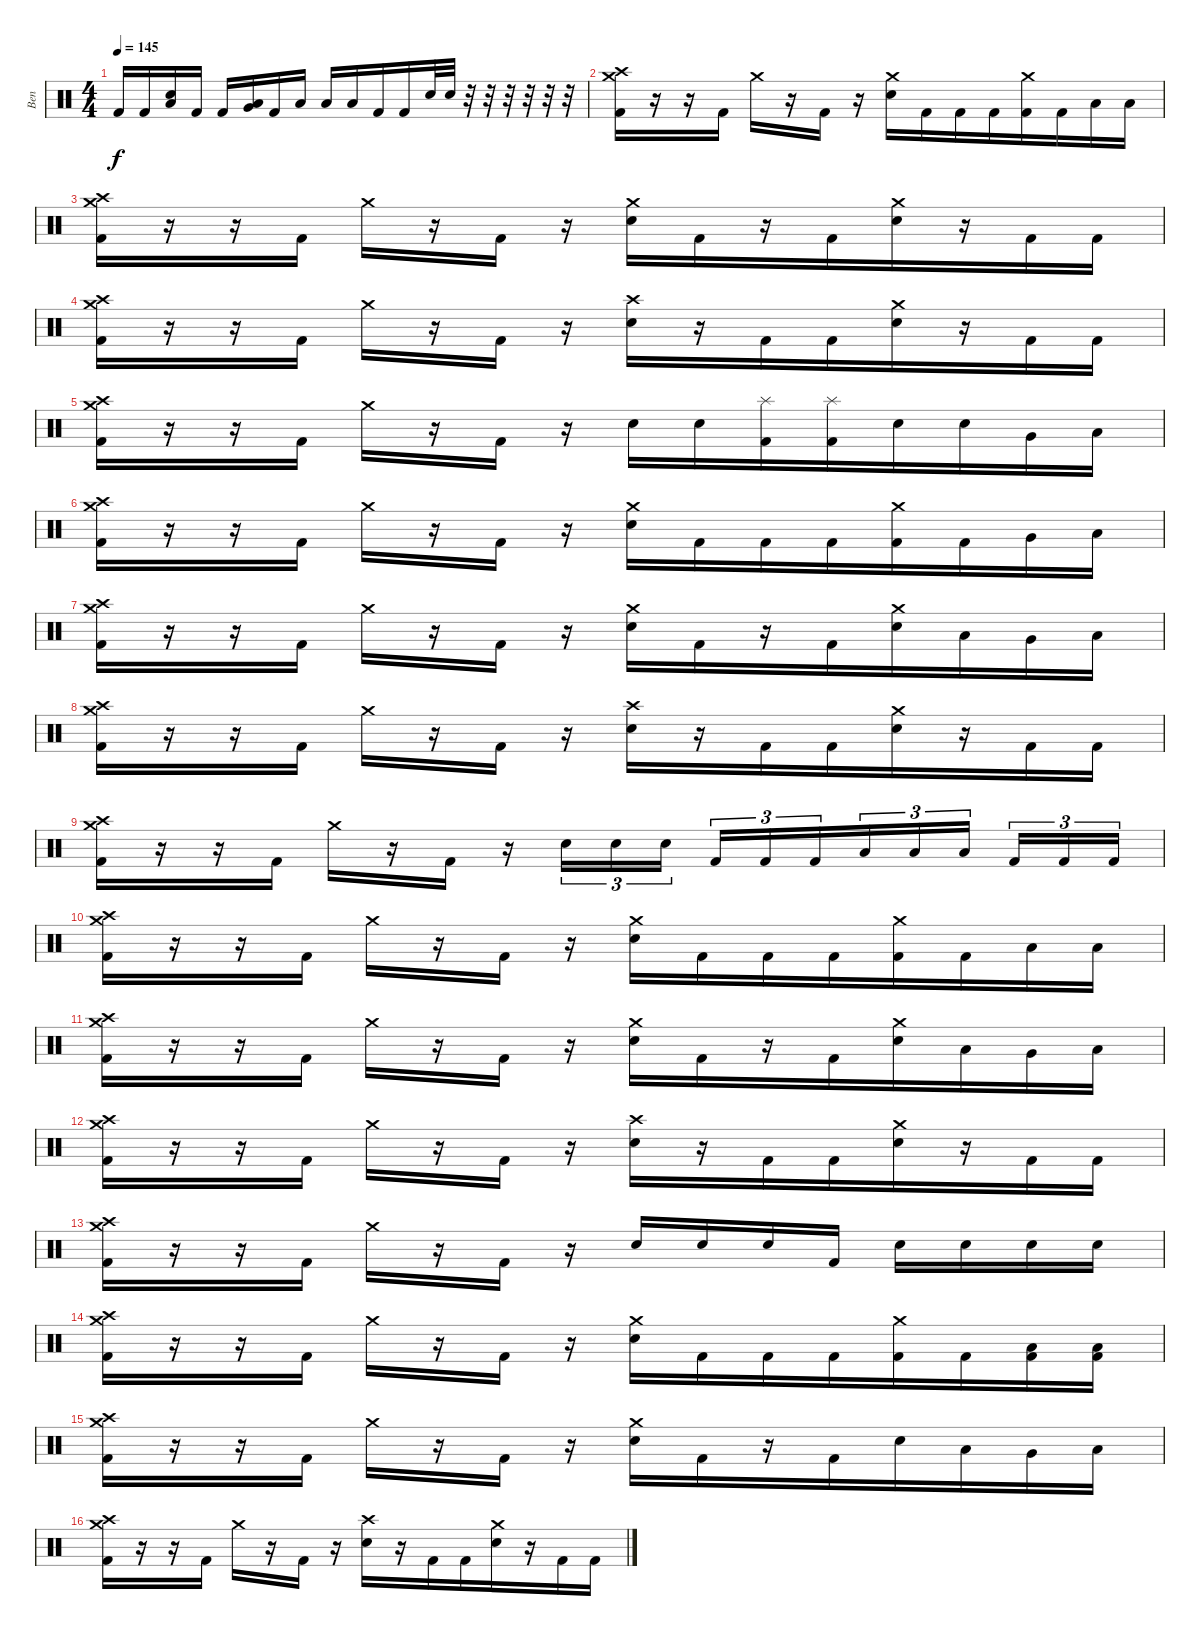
\track ("Ben" "Ben") {instrument percussion}
\staff {score}
\articulation defaults
\ts (4 4)
\tempo 145
\clef neutral
\ks c "Kick (hit) 2".16{dy f} "Kick (hit) 2".16{beam merge}
("Low Floor Tom (hit)" "Electric Snare (hit)").16 "Kick (hit) 2".16 "Kick (hit) 2".16 ("Low Tom (hit)" "Very Low Tom (hit)").16{beam merge} "Kick (hit) 2".16 "Low Floor Tom (hit)".16 "Low Floor Tom (hit)".16 "Low Floor Tom (hit)".16{beam merge} "Kick (hit) 2".16{beam merge} "Kick (hit) 2".16{beam merge} "Electric Snare (hit)".32 "Electric Snare (hit)".32{beam merge} r.32 r.32{beam merge} r.32 r.32{beam merge} r.32 r.32 |
("Kick (hit) 2" "Crash medium (hit)" "Crash high (hit)").16 r.16{beam merge} r.16 "Kick (hit) 2".16 "Crash medium (hit)".16{beam merge} r.16{beam merge} "Kick (hit) 2".16 r.16{beam merge} ("Crash medium (hit)" "Electric Snare (hit)").16 "Kick (hit) 2".16{beam merge} "Kick (hit) 2".16{beam merge} "Kick (hit) 2".16{beam merge} ("Kick (hit) 2" "Crash medium (hit)").16{beam merge} "Kick (hit) 2".16{beam merge} "Low Tom (hit)".16{beam merge} "Low Tom (hit)".16 |
("Kick (hit) 2" "Crash medium (hit)" "Crash high (hit)").16 r.16{beam merge} r.16 "Kick (hit) 2".16 "Crash medium (hit)".16{beam merge} r.16{beam merge} "Kick (hit) 2".16 r.16{beam merge} ("Crash medium (hit)" "Electric Snare (hit)").16 "Kick (hit) 2".16{beam merge} r.16{beam merge} "Kick (hit) 2".16{beam merge} ("Electric Snare (hit)" "Crash medium (hit)").16{beam merge} r.16{beam merge} "Kick (hit) 2".16{beam merge} "Kick (hit) 2".16 |
("Kick (hit) 2" "Crash medium (hit)" "Crash high (hit)").16 r.16{beam merge} r.16 "Kick (hit) 2".16 "Crash medium (hit)".16{beam merge} r.16{beam merge} "Kick (hit) 2".16 r.16{beam merge} ("Crash high (hit)" "Electric Snare (hit)").16{beam merge} r.16{beam merge} "Kick (hit) 2".16{beam merge} "Kick (hit) 2".16{beam merge} ("Electric Snare (hit)" "Crash medium (hit)").16{beam merge} r.16{beam merge} "Kick (hit) 2".16 "Kick (hit) 2".16 |
("Kick (hit) 2" "Crash medium (hit)" "Crash high (hit)").16 r.16{beam merge} r.16 "Kick (hit) 2".16 "Crash medium (hit)".16{beam merge} r.16{beam merge} "Kick (hit) 2".16 r.16{beam merge} "Electric Snare (hit)".16{beam merge} "Electric Snare (hit)".16 ("Kick (hit) 2" "Splash (hit)").16 ("Kick (hit) 2" "Splash (hit)").16{beam merge} "Electric Snare (hit)".16{beam merge} "Electric Snare (hit)".16 "Very Low Tom (hit)".16{beam merge} "Low Floor Tom (hit)".16 |
("Kick (hit) 2" "Crash medium (hit)" "Crash high (hit)").16 r.16{beam merge} r.16 "Kick (hit) 2".16 "Crash medium (hit)".16{beam merge} r.16{beam merge} "Kick (hit) 2".16 r.16{beam merge} ("Crash medium (hit)" "Electric Snare (hit)").16 "Kick (hit) 2".16{beam merge} "Kick (hit) 2".16{beam merge} "Kick (hit) 2".16{beam merge} ("Kick (hit) 2" "Crash medium (hit)").16{beam merge} "Kick (hit) 2".16{beam merge} "Very Low Tom (hit)".16{beam merge} "Low Floor Tom (hit)".16 |
("Kick (hit) 2" "Crash medium (hit)" "Crash high (hit)").16 r.16{beam merge} r.16 "Kick (hit) 2".16 "Crash medium (hit)".16{beam merge} r.16{beam merge} "Kick (hit) 2".16 r.16{beam merge} ("Crash medium (hit)" "Electric Snare (hit)").16 "Kick (hit) 2".16{beam merge} r.16{beam merge} "Kick (hit) 2".16{beam merge} ("Electric Snare (hit)" "Crash medium (hit)").16{beam merge} "Low Tom (hit)".16{beam merge} "Very Low Tom (hit)".16{beam merge} "Low Floor Tom (hit)".16 |
("Kick (hit) 2" "Crash medium (hit)" "Crash high (hit)").16 r.16{beam merge} r.16 "Kick (hit) 2".16 "Crash medium (hit)".16{beam merge} r.16{beam merge} "Kick (hit) 2".16 r.16{beam merge} ("Crash high (hit)" "Electric Snare (hit)").16{beam merge} r.16{beam merge} "Kick (hit) 2".16{beam merge} "Kick (hit) 2".16{beam merge} ("Electric Snare (hit)" "Crash medium (hit)").16{beam merge} r.16{beam merge} "Kick (hit) 2".16 "Kick (hit) 2".16 |
("Kick (hit) 2" "Crash medium (hit)" "Crash high (hit)").16 r.16{beam merge} r.16 "Kick (hit) 2".16 "Crash medium (hit)".16{beam merge} r.16{beam merge} "Kick (hit) 2".16 r.16{beam merge} "Electric Snare (hit)".16{tu (3 2) beam merge} "Electric Snare (hit)".16{tu (3 2)} "Electric Snare (hit)".16{tu (3 2) beam splitsecondary} "Kick (hit) 2".16{tu (3 2)} "Kick (hit) 2".16{tu (3 2) beam merge} "Kick (hit) 2".16{tu (3 2) beam merge} "Low Tom (hit)".16{tu (3 2)} "Low Tom (hit)".16{tu (3 2)} "Low Tom (hit)".16{tu (3 2) beam splitsecondary} "Kick (hit) 2".16{tu (3 2) beam merge} "Kick (hit) 2".16{tu (3 2) beam merge} "Kick (hit) 2".16{tu (3 2)} |
("Kick (hit) 2" "Crash medium (hit)" "Crash high (hit)").16 r.16{beam merge} r.16 "Kick (hit) 2".16 "Crash medium (hit)".16{beam merge} r.16{beam merge} "Kick (hit) 2".16 r.16{beam merge} ("Crash medium (hit)" "Electric Snare (hit)").16 "Kick (hit) 2".16{beam merge} "Kick (hit) 2".16{beam merge} "Kick (hit) 2".16{beam merge} ("Kick (hit) 2" "Crash medium (hit)").16{beam merge} "Kick (hit) 2".16{beam merge} "Low Tom (hit)".16{beam merge} "Low Tom (hit)".16 |
("Kick (hit) 2" "Crash medium (hit)" "Crash high (hit)").16 r.16{beam merge} r.16 "Kick (hit) 2".16 "Crash medium (hit)".16{beam merge} r.16{beam merge} "Kick (hit) 2".16 r.16{beam merge} ("Crash medium (hit)" "Electric Snare (hit)").16 "Kick (hit) 2".16{beam merge} r.16{beam merge} "Kick (hit) 2".16{beam merge} ("Electric Snare (hit)" "Crash medium (hit)").16{beam merge} "Low Tom (hit)".16{beam merge} "Very Low Tom (hit)".16{beam merge} "Low Floor Tom (hit)".16 |
("Kick (hit) 2" "Crash medium (hit)" "Crash high (hit)").16 r.16{beam merge} r.16 "Kick (hit) 2".16 "Crash medium (hit)".16{beam merge} r.16{beam merge} "Kick (hit) 2".16 r.16{beam merge} ("Crash high (hit)" "Electric Snare (hit)").16{beam merge} r.16{beam merge} "Kick (hit) 2".16{beam merge} "Kick (hit) 2".16{beam merge} ("Electric Snare (hit)" "Crash medium (hit)").16{beam merge} r.16{beam merge} "Kick (hit) 2".16 "Kick (hit) 2".16 |
("Kick (hit) 2" "Crash medium (hit)" "Crash high (hit)").16 r.16{beam merge} r.16 "Kick (hit) 2".16 "Crash medium (hit)".16{beam merge} r.16{beam merge} "Kick (hit) 2".16 r.16{beam merge} "Electric Snare (hit)".16{beam merge} "Electric Snare (hit)".16 "Electric Snare (hit)".16{beam merge} "Kick (hit) 2".16 "Electric Snare (hit)".16{beam merge} "Electric Snare (hit)".16{beam merge} "Electric Snare (hit)".16 "Electric Snare (hit)".16 |
("Kick (hit) 2" "Crash medium (hit)" "Crash high (hit)").16 r.16{beam merge} r.16 "Kick (hit) 2".16 "Crash medium (hit)".16{beam merge} r.16{beam merge} "Kick (hit) 2".16 r.16{beam merge} ("Crash medium (hit)" "Electric Snare (hit)").16 "Kick (hit) 2".16{beam merge} "Kick (hit) 2".16{beam merge} "Kick (hit) 2".16{beam merge} ("Kick (hit) 2" "Crash medium (hit)").16{beam merge} "Kick (hit) 2".16{beam merge} ("Low Tom (hit)" "Kick (hit) 2").16{beam merge} ("Low Tom (hit)" "Kick (hit) 2").16 |
("Kick (hit) 2" "Crash medium (hit)" "Crash high (hit)").16 r.16{beam merge} r.16 "Kick (hit) 2".16 "Crash medium (hit)".16{beam merge} r.16{beam merge} "Kick (hit) 2".16 r.16{beam merge} ("Crash medium (hit)" "Electric Snare (hit)").16 "Kick (hit) 2".16{beam merge} r.16{beam merge} "Kick (hit) 2".16{beam merge} "Electric Snare (hit)".16{beam merge} "Low Tom (hit)".16{beam merge} "Very Low Tom (hit)".16{beam merge} "Low Floor Tom (hit)".16 |
("Kick (hit) 2" "Crash medium (hit)" "Crash high (hit)").16 r.16{beam merge} r.16 "Kick (hit) 2".16 "Crash medium (hit)".16{beam merge} r.16{beam merge} "Kick (hit) 2".16 r.16{beam merge} ("Crash high (hit)" "Electric Snare (hit)").16{beam merge} r.16{beam merge} "Kick (hit) 2".16{beam merge} "Kick (hit) 2".16{beam merge} ("Electric Snare (hit)" "Crash medium (hit)").16{beam merge} r.16{beam merge} "Kick (hit) 2".16 "Kick (hit) 2".16
